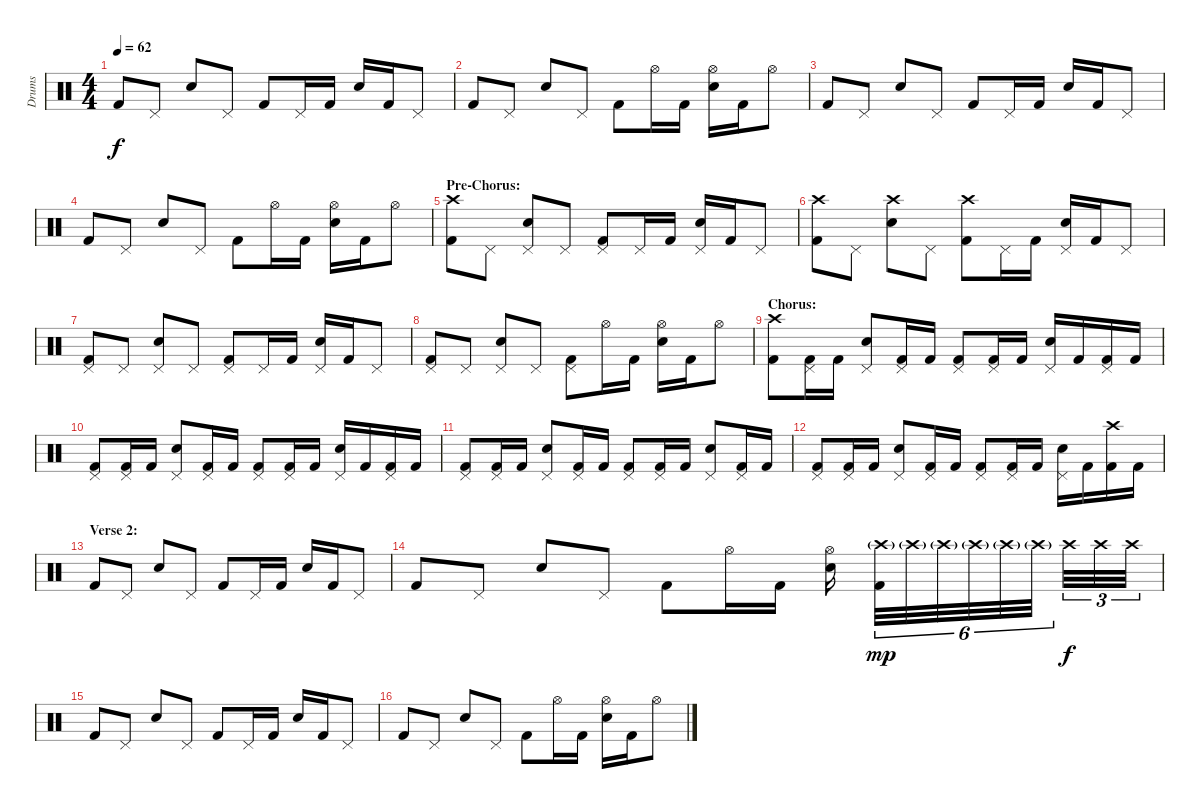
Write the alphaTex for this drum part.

\track ("Drums" "Drums") {instrument percussion}
\staff {score}
\articulation defaults
\ts (4 4)
\tempo 62
\clef neutral
\ks c "Kick (hit) 2".8{dy f} "Pedal Hi-Hat (hit)".8 "Snare (hit) 2".8 "Pedal Hi-Hat (hit)".8 "Kick (hit) 2".8 "Pedal Hi-Hat (hit)".16 "Kick (hit) 2".16 "Snare (hit) 2".16 "Kick (hit) 2".16 "Pedal Hi-Hat (hit)".8
|
"Kick (hit) 2".8 "Pedal Hi-Hat (hit)".8 "Snare (hit) 2".8 "Pedal Hi-Hat (hit)".8 "Kick (hit) 2".8 "Hi-Hat (open)".16 "Kick (hit) 2".16 ("Hi-Hat (open)" "Snare (hit) 2").16 "Kick (hit) 2".16 "Hi-Hat (open)".8 |
"Kick (hit) 2".8 "Pedal Hi-Hat (hit)".8 "Snare (hit) 2".8 "Pedal Hi-Hat (hit)".8 "Kick (hit) 2".8 "Pedal Hi-Hat (hit)".16 "Kick (hit) 2".16 "Snare (hit) 2".16 "Kick (hit) 2".16 "Pedal Hi-Hat (hit)".8 |
"Kick (hit) 2".8 "Pedal Hi-Hat (hit)".8 "Snare (hit) 2".8 "Pedal Hi-Hat (hit)".8 "Kick (hit) 2".8 "Hi-Hat (open)".16 "Kick (hit) 2".16 ("Hi-Hat (open)" "Snare (hit) 2").16 "Kick (hit) 2".16 "Hi-Hat (open)".8 |
\section ("" "Pre-Chorus:")
("Crash high (hit)" "Kick (hit) 2").8 "Pedal Hi-Hat (hit)".8 ("Pedal Hi-Hat (hit)" "Snare (hit) 2").8 "Pedal Hi-Hat (hit)".8 ("Pedal Hi-Hat (hit)" "Kick (hit) 2").8 "Pedal Hi-Hat (hit)".16 "Kick (hit) 2".16 ("Pedal Hi-Hat (hit)" "Snare (hit) 2").16 "Kick (hit) 2".16 "Pedal Hi-Hat (hit)".8 |
("Crash high (hit)" "Kick (hit) 2").8 "Pedal Hi-Hat (hit)".8 ("Crash high (hit)" "Snare (hit) 2").8 "Pedal Hi-Hat (hit)".8 ("Crash high (hit)" "Kick (hit) 2").8 "Pedal Hi-Hat (hit)".16 "Kick (hit) 2".16 ("Pedal Hi-Hat (hit)" "Snare (hit) 2").16 "Kick (hit) 2".16 "Pedal Hi-Hat (hit)".8 |
("Pedal Hi-Hat (hit)" "Kick (hit) 2").8 "Pedal Hi-Hat (hit)".8 ("Pedal Hi-Hat (hit)" "Snare (hit) 2").8 "Pedal Hi-Hat (hit)".8 ("Pedal Hi-Hat (hit)" "Kick (hit) 2").8 "Pedal Hi-Hat (hit)".16 "Kick (hit) 2".16 ("Pedal Hi-Hat (hit)" "Snare (hit) 2").16 "Kick (hit) 2".16 "Pedal Hi-Hat (hit)".8 |
("Pedal Hi-Hat (hit)" "Kick (hit) 2").8 "Pedal Hi-Hat (hit)".8 ("Pedal Hi-Hat (hit)" "Snare (hit) 2").8 "Pedal Hi-Hat (hit)".8 ("Pedal Hi-Hat (hit)" "Kick (hit) 2").8 "Hi-Hat (open)".16 "Kick (hit) 2".16 ("Hi-Hat (open)" "Snare (hit) 2").16 "Kick (hit) 2".16 "Hi-Hat (open)".8 |
\section ("" "Chorus:")
("Crash high (hit)" "Kick (hit) 2").8 ("Pedal Hi-Hat (hit)" "Kick (hit) 2").16 "Kick (hit) 2".16 ("Pedal Hi-Hat (hit)" "Snare (hit) 2").8 ("Pedal Hi-Hat (hit)" "Kick (hit) 2").16 "Kick (hit) 2".16 ("Pedal Hi-Hat (hit)" "Kick (hit) 2").8 ("Pedal Hi-Hat (hit)" "Kick (hit) 2").16 "Kick (hit) 2".16 ("Pedal Hi-Hat (hit)" "Snare (hit) 2").16 "Kick (hit) 2".16 ("Pedal Hi-Hat (hit)" "Kick (hit) 2").16 "Kick (hit) 2".16 |
("Pedal Hi-Hat (hit)" "Kick (hit) 2").8 ("Pedal Hi-Hat (hit)" "Kick (hit) 2").16 "Kick (hit) 2".16 ("Pedal Hi-Hat (hit)" "Snare (hit) 2").8 ("Pedal Hi-Hat (hit)" "Kick (hit) 2").16 "Kick (hit) 2".16 ("Pedal Hi-Hat (hit)" "Kick (hit) 2").8 ("Pedal Hi-Hat (hit)" "Kick (hit) 2").16 "Kick (hit) 2".16 ("Pedal Hi-Hat (hit)" "Snare (hit) 2").16 "Kick (hit) 2".16 ("Pedal Hi-Hat (hit)" "Kick (hit) 2").16 "Kick (hit) 2".16 |
("Pedal Hi-Hat (hit)" "Kick (hit) 2").8 ("Pedal Hi-Hat (hit)" "Kick (hit) 2").16 "Kick (hit) 2".16 ("Pedal Hi-Hat (hit)" "Snare (hit) 2").8 ("Pedal Hi-Hat (hit)" "Kick (hit) 2").16 "Kick (hit) 2".16 ("Pedal Hi-Hat (hit)" "Kick (hit) 2").8 ("Pedal Hi-Hat (hit)" "Kick (hit) 2").16 "Kick (hit) 2".16 ("Pedal Hi-Hat (hit)" "Snare (hit) 2").8 ("Pedal Hi-Hat (hit)" "Kick (hit) 2").16 "Kick (hit) 2".16 |
("Pedal Hi-Hat (hit)" "Kick (hit) 2").8 ("Pedal Hi-Hat (hit)" "Kick (hit) 2").16 "Kick (hit) 2".16 ("Pedal Hi-Hat (hit)" "Snare (hit) 2").8 ("Pedal Hi-Hat (hit)" "Kick (hit) 2").16 "Kick (hit) 2".16 ("Pedal Hi-Hat (hit)" "Kick (hit) 2").8 ("Pedal Hi-Hat (hit)" "Kick (hit) 2").16 "Kick (hit) 2".16 ("Pedal Hi-Hat (hit)" "Snare (hit) 2").16 "Kick (hit) 2".16 ("Crash high (hit)" "Kick (hit) 2").16 "Kick (hit) 2".16 |
\section ("" "Verse 2:")
"Kick (hit) 2".8 "Pedal Hi-Hat (hit)".8 "Snare (hit) 2".8 "Pedal Hi-Hat (hit)".8 "Kick (hit) 2".8 "Pedal Hi-Hat (hit)".16 "Kick (hit) 2".16 "Snare (hit) 2".16 "Kick (hit) 2".16 "Pedal Hi-Hat (hit)".8 |
"Kick (hit) 2".8 "Pedal Hi-Hat (hit)".8 "Snare (hit) 2".8 "Pedal Hi-Hat (hit)".8 "Kick (hit) 2".8 "Hi-Hat (open)".16 "Kick (hit) 2".16 ("Hi-Hat (open)" "Snare (hit) 2").16 ("Crash high (hit)"{g} "Kick (hit) 2").32{tu (6 4) dy mp} "Crash high (hit)"{g}.32{tu (6 4)} "Crash high (hit)"{g}.32{tu (6 4)} "Crash high (hit)"{g}.32{tu (6 4)} "Crash high (hit)"{g}.32{tu (6 4)} "Crash high (hit)"{g}.32{tu (6 4)} "Crash high (hit)".32{tu (3 2) dy f} "Crash high (hit)".32{tu (3 2)} "Crash high (hit)".32{tu (3 2)} |
"Kick (hit) 2".8 "Pedal Hi-Hat (hit)".8 "Snare (hit) 2".8 "Pedal Hi-Hat (hit)".8 "Kick (hit) 2".8 "Pedal Hi-Hat (hit)".16 "Kick (hit) 2".16 "Snare (hit) 2".16 "Kick (hit) 2".16 "Pedal Hi-Hat (hit)".8 |
"Kick (hit) 2".8 "Pedal Hi-Hat (hit)".8 "Snare (hit) 2".8 "Pedal Hi-Hat (hit)".8 "Kick (hit) 2".8 "Hi-Hat (open)".16 "Kick (hit) 2".16 ("Hi-Hat (open)" "Snare (hit) 2").16 "Kick (hit) 2".16 "Hi-Hat (open)".8
